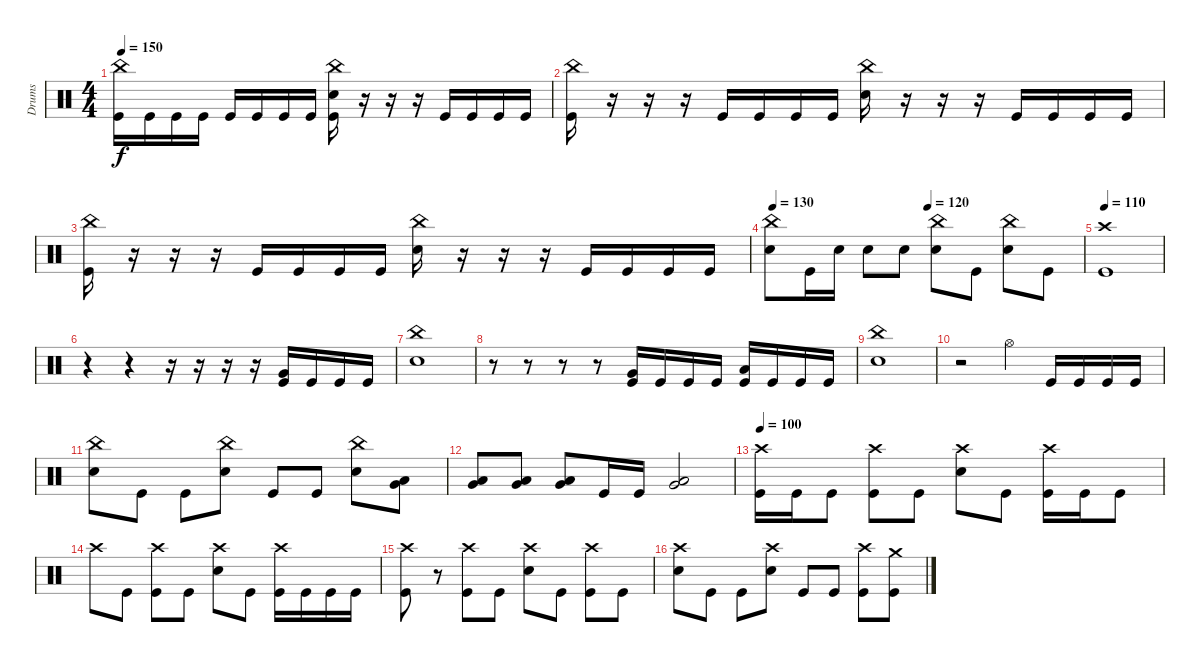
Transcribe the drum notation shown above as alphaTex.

\track ("Drums" "Drums") {instrument percussion}
\staff {score}
\articulation defaults
\ts (4 4)
\tempo 150
\clef neutral
\ks c
("China (hit)" "Kick (hit)").16{dy f} "Kick (hit)".16 "Kick (hit)".16 "Kick (hit)".16 "Kick (hit)".16 "Kick (hit)".16 "Kick (hit)".16 "Kick (hit)".16 ("China (hit)" "Electric Snare (hit)" "Kick (hit)").16 r.16 r.16 r.16 "Kick (hit)".16 "Kick (hit)".16 "Kick (hit)".16 "Kick (hit)".16 |
("China (hit)" "Kick (hit)").16 r.16 r.16 r.16 "Kick (hit)".16 "Kick (hit)".16 "Kick (hit)".16 "Kick (hit)".16 ("China (hit)" "Electric Snare (hit)").16 r.16 r.16 r.16 "Kick (hit)".16 "Kick (hit)".16 "Kick (hit)".16 "Kick (hit)".16 |
("China (hit)" "Kick (hit)").16 r.16 r.16 r.16 "Kick (hit)".16 "Kick (hit)".16 "Kick (hit)".16 "Kick (hit)".16 ("China (hit)" "Electric Snare (hit)").16 r.16 r.16 r.16 "Kick (hit)".16 "Kick (hit)".16 "Kick (hit)".16 "Kick (hit)".16 |
\tempo 130
\tempo (120 0.5)
("China (hit)" "Electric Snare (hit)").8 "Kick (hit)".16 "Electric Snare (hit)".16 "Electric Snare (hit)".8 "Electric Snare (hit)".8 ("China (hit)" "Electric Snare (hit)").8 "Kick (hit)".8 ("China (hit)" "Electric Snare (hit)").8 "Kick (hit)".8 |
\tempo 110
("Crash high (hit)" "Kick (hit)").1 |
r.4 r.4 r.16 r.16 r.16 r.16 ("Very Low Tom (hit)" "Kick (hit)").16 "Kick (hit)".16 "Kick (hit)".16 "Kick (hit)".16 |
("China (hit)" "Electric Snare (hit)").1 |
r.8 r.8 r.8 r.8 ("Very Low Tom (hit)" "Kick (hit)").16 "Kick (hit)".16 "Kick (hit)".16 "Kick (hit)".16 ("Low Floor Tom (hit)" "Kick (hit)").16 "Kick (hit)".16 "Kick (hit)".16 "Kick (hit)".16 |
("China (hit)" "Electric Snare (hit)").1 |
r.2 "Hi-Hat (open)".4 "Kick (hit)".16 "Kick (hit)".16 "Kick (hit)".16 "Kick (hit)".16 |
("China (hit)" "Electric Snare (hit)").8 "Kick (hit)".8 "Kick (hit)".8 ("China (hit)" "Electric Snare (hit)").8 "Kick (hit)".8 "Kick (hit)".8 ("China (hit)" "Electric Snare (hit)").8 ("Low Tom (hit)" "Very Low Tom (hit)").8 |
("Low Tom (hit)" "Very Low Tom (hit)").8 ("Low Tom (hit)" "Very Low Tom (hit)").8 ("Low Tom (hit)" "Very Low Tom (hit)").8 "Kick (hit)".16 "Kick (hit)".16 ("Very Low Tom (hit)" "Low Floor Tom (hit)").2 |
\tempo 100
("Crash high (hit)" "Kick (hit)").16 "Kick (hit)".16 "Kick (hit)".8 ("Crash high (hit)" "Kick (hit)").8 "Kick (hit)".8 ("Crash high (hit)" "Electric Snare (hit)").8 "Kick (hit)".8 ("Crash high (hit)" "Kick (hit)").16 "Kick (hit)".16 "Kick (hit)".8 |
"Crash high (hit)".8 "Kick (hit)".8 ("Crash high (hit)" "Kick (hit)").8 "Kick (hit)".8 ("Crash high (hit)" "Electric Snare (hit)").8 "Kick (hit)".8 ("Crash high (hit)" "Kick (hit)").16 "Kick (hit)".16 "Kick (hit)".16 "Kick (hit)".16 |
("Crash high (hit)" "Kick (hit)").8 r.8 ("Crash high (hit)" "Kick (hit)").8 "Kick (hit)".8 ("Crash high (hit)" "Electric Snare (hit)").8 "Kick (hit)".8 ("Crash high (hit)" "Kick (hit)").8 "Kick (hit)".8 |
("Crash high (hit)" "Electric Snare (hit)").8 "Kick (hit)".8 "Kick (hit)".8 ("Crash high (hit)" "Electric Snare (hit)").8 "Kick (hit)".8 "Kick (hit)".8 ("Crash high (hit)" "Kick (hit)").8 ("Crash medium (hit)" "Kick (hit)").8
